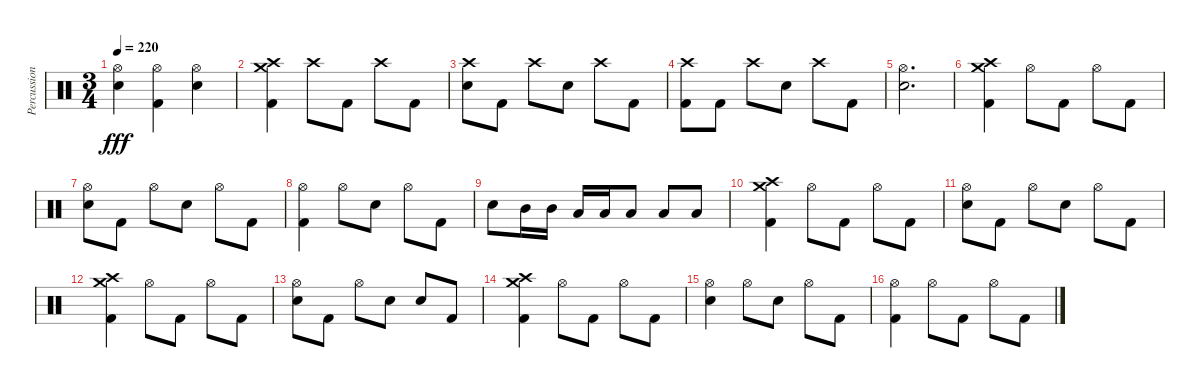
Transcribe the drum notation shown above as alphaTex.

\track ("Percussions" "Percussion") {instrument percussion}
\staff {score}
\articulation defaults
\ts (3 4)
\tempo 220
\clef neutral
\ks c
("Hi-Hat (open)" "Electric Snare (hit)").4{dy fff} ("Hi-Hat (open)" "Kick (hit) 2").4 ("Hi-Hat (open)" "Electric Snare (hit)").4 |
("Crash high (hit)" "Crash medium (hit)" "Kick (hit) 2").4{bd 240} "Crash high (hit)".8 "Kick (hit) 2".8 "Crash high (hit)".8 "Kick (hit) 2".8 |
("Crash high (hit)" "Electric Snare (hit)").8 "Kick (hit) 2".8 "Crash high (hit)".8 "Electric Snare (hit)".8 "Crash high (hit)".8 "Kick (hit) 2".8 |
("Crash high (hit)" "Kick (hit) 2").8 "Kick (hit) 2".8 "Crash high (hit)".8 "Electric Snare (hit)".8 "Crash high (hit)".8 "Kick (hit) 2".8 |
("Hi-Hat (open)" "Electric Snare (hit)").2{d} |
("Crash high (hit)" "Crash medium (hit)" "Kick (hit) 2").4{bd 240} "Hi-Hat (open)".8 "Kick (hit) 2".8 "Hi-Hat (open)".8 "Kick (hit) 2".8 |
("Hi-Hat (open)" "Electric Snare (hit)").8 "Kick (hit) 2".8 "Hi-Hat (open)".8 "Electric Snare (hit)".8 "Hi-Hat (open)".8 "Kick (hit) 2".8 |
("Hi-Hat (open)" "Kick (hit) 2").4 "Hi-Hat (open)".8 "Electric Snare (hit)".8 "Hi-Hat (open)".8 "Kick (hit) 2".8 |
"Electric Snare (hit)".8 "Mid Tom (hit)".16 "Mid Tom (hit)".16 "Low Tom (hit)".16 "Low Tom (hit)".16 "Low Floor Tom (hit)".8 "Low Floor Tom (hit)".8 "Low Floor Tom (hit)".8 |
("Crash high (hit)" "Crash medium (hit)" "Kick (hit) 2").4{bd 240} "Hi-Hat (open)".8 "Kick (hit) 2".8 "Hi-Hat (open)".8 "Kick (hit) 2".8 |
("Hi-Hat (open)" "Electric Snare (hit)").8 "Kick (hit) 2".8 "Hi-Hat (open)".8 "Electric Snare (hit)".8 "Hi-Hat (open)".8 "Kick (hit) 2".8 |
("Crash high (hit)" "Crash medium (hit)" "Kick (hit) 2").4{bd 240} "Hi-Hat (open)".8 "Kick (hit) 2".8 "Hi-Hat (open)".8 "Kick (hit) 2".8 |
("Hi-Hat (open)" "Electric Snare (hit)").8 "Kick (hit) 2".8 "Hi-Hat (open)".8 "Electric Snare (hit)".8 "Electric Snare (hit)".8 "Kick (hit) 2".8 |
("Crash high (hit)" "Crash medium (hit)" "Kick (hit) 2").4{bd 240} "Hi-Hat (open)".8 "Kick (hit) 2".8 "Hi-Hat (open)".8 "Kick (hit) 2".8 |
("Hi-Hat (open)" "Electric Snare (hit)").4 "Hi-Hat (open)".8 "Electric Snare (hit)".8 "Hi-Hat (open)".8 "Kick (hit) 2".8 |
("Hi-Hat (open)" "Kick (hit) 2").4 "Hi-Hat (open)".8 "Kick (hit) 2".8 "Hi-Hat (open)".8 "Kick (hit) 2".8
